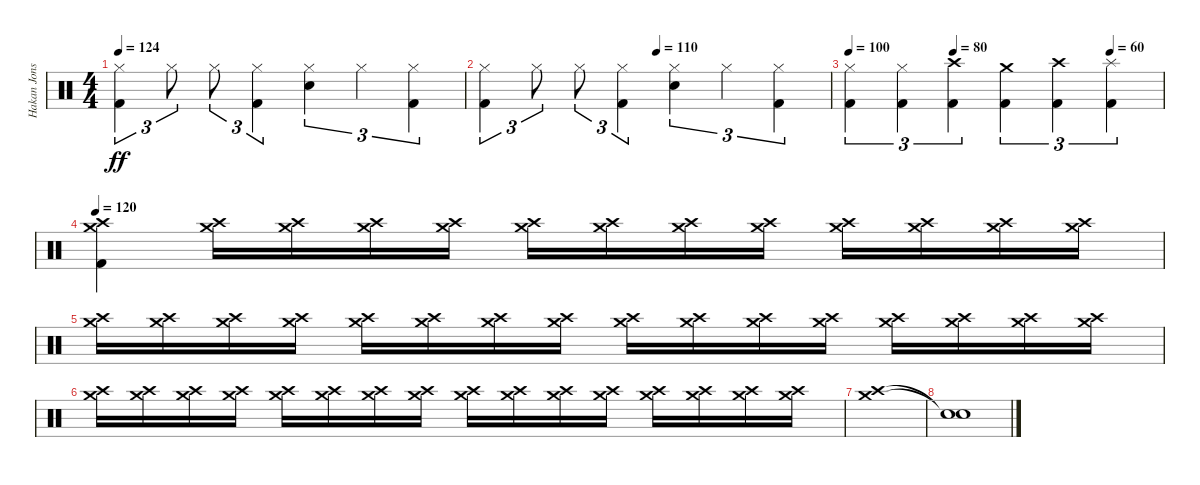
\track ("Hakan Jonsson" "Hakan Jons") {instrument percussion}
\staff {score}
\articulation defaults
\ts (4 4)
\tempo 124
\clef neutral
\ks c
("Hi-Hat (closed)" "Kick (hit) 2").4{tu (3 2) dy ff} "Hi-Hat (closed)".8{tu (3 2)} "Hi-Hat (closed)".8{tu (3 2)} ("Hi-Hat (closed)" "Kick (hit) 2").4{tu (3 2)} ("Hi-Hat (closed)" "Electric Snare (hit)").4{tu (3 2)} "Hi-Hat (closed)".4{tu (3 2)} ("Hi-Hat (closed)" "Kick (hit) 2").4{tu (3 2)} |
\tempo (110 0.5)
("Hi-Hat (closed)" "Kick (hit) 2").4{tu (3 2)} "Hi-Hat (closed)".8{tu (3 2)} "Hi-Hat (closed)".8{tu (3 2)} ("Hi-Hat (closed)" "Kick (hit) 2").4{tu (3 2)} ("Hi-Hat (closed)" "Electric Snare (hit)").4{tu (3 2)} "Hi-Hat (closed)".4{tu (3 2)} ("Hi-Hat (closed)" "Kick (hit) 2").4{tu (3 2)} |
\tempo 100
\tempo (80 0.3333333333333333)
\tempo (60 0.8333333333333334)
("Hi-Hat (closed)" "Kick (hit) 2").4{tu (3 2)} ("Hi-Hat (closed)" "Kick (hit) 2").4{tu (3 2)} ("Crash high (hit)" "Kick (hit) 2").4{tu (3 2)} ("Crash medium (hit)" "Kick (hit) 2").4{tu (3 2)} ("Crash high (hit)" "Kick (hit) 2").4{tu (3 2)} ("Splash (hit)" "Kick (hit) 2").4{tu (3 2)} |
\tempo 120
("Crash medium (hit)" "Crash high (hit)" "Kick (hit) 2").4 ("Crash medium (hit)" "Crash high (hit)").16{volume 7} ("Crash medium (hit)" "Crash high (hit)").16 ("Crash medium (hit)" "Crash high (hit)").16 ("Crash medium (hit)" "Crash high (hit)").16 ("Crash medium (hit)" "Crash high (hit)").16{volume 10} ("Crash medium (hit)" "Crash high (hit)").16 ("Crash medium (hit)" "Crash high (hit)").16 ("Crash medium (hit)" "Crash high (hit)").16 ("Crash medium (hit)" "Crash high (hit)").16{volume 13} ("Crash medium (hit)" "Crash high (hit)").16 ("Crash medium (hit)" "Crash high (hit)").16 ("Crash medium (hit)" "Crash high (hit)").16 |
("Crash medium (hit)" "Crash high (hit)").16{volume 10} ("Crash medium (hit)" "Crash high (hit)").16 ("Crash medium (hit)" "Crash high (hit)").16 ("Crash medium (hit)" "Crash high (hit)").16 ("Crash medium (hit)" "Crash high (hit)").16{volume 7} ("Crash medium (hit)" "Crash high (hit)").16 ("Crash medium (hit)" "Crash high (hit)").16 ("Crash medium (hit)" "Crash high (hit)").16 ("Crash medium (hit)" "Crash high (hit)").16{volume 5} ("Crash medium (hit)" "Crash high (hit)").16 ("Crash medium (hit)" "Crash high (hit)").16 ("Crash medium (hit)" "Crash high (hit)").16 ("Crash medium (hit)" "Crash high (hit)").16{volume 7} ("Crash medium (hit)" "Crash high (hit)").16 ("Crash medium (hit)" "Crash high (hit)").16 ("Crash medium (hit)" "Crash high (hit)").16 |
("Crash medium (hit)" "Crash high (hit)").16{volume 10} ("Crash medium (hit)" "Crash high (hit)").16 ("Crash medium (hit)" "Crash high (hit)").16 ("Crash medium (hit)" "Crash high (hit)").16 ("Crash medium (hit)" "Crash high (hit)").16{volume 13} ("Crash medium (hit)" "Crash high (hit)").16 ("Crash medium (hit)" "Crash high (hit)").16 ("Crash medium (hit)" "Crash high (hit)").16 ("Crash medium (hit)" "Crash high (hit)").16{volume 10} ("Crash medium (hit)" "Crash high (hit)").16 ("Crash medium (hit)" "Crash high (hit)").16 ("Crash medium (hit)" "Crash high (hit)").16 ("Crash medium (hit)" "Crash high (hit)").16{volume 7} ("Crash medium (hit)" "Crash high (hit)").16 ("Crash medium (hit)" "Crash high (hit)").16 ("Crash medium (hit)" "Crash high (hit)").16 |
("Crash medium (hit)" "Crash high (hit)").1 |
("Snare (hit)"{t} "Snare (hit)"{t}).1
